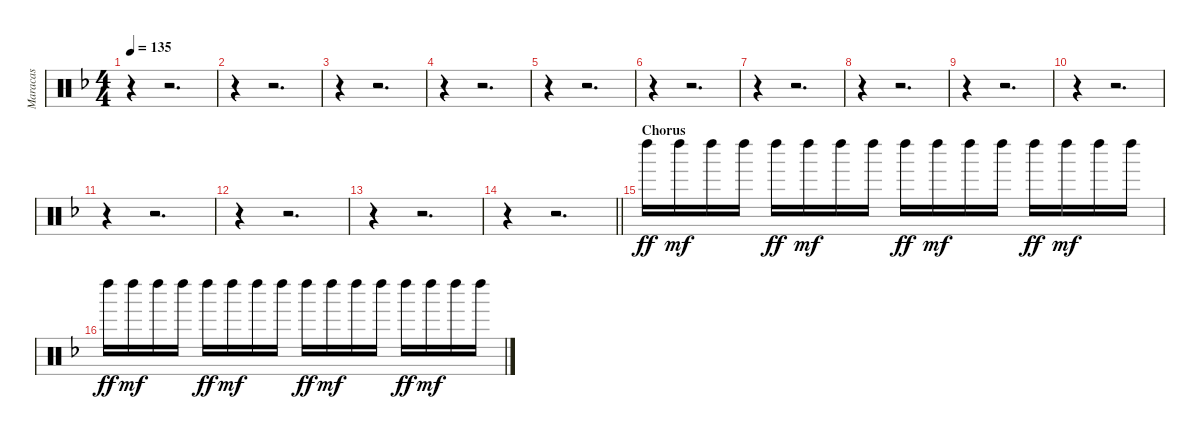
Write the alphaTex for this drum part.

\track ("Maracas" "Maracas") {instrument percussion}
\staff {score}
\articulation defaults
\ts (4 4)
\tempo 135
\clef neutral
\ks f
r.4{dy mf} r.2{d} |
r.4 r.2{d} |
r.4 r.2{d} |
r.4 r.2{d} |
r.4 r.2{d} |
r.4 r.2{d} |
r.4 r.2{d} |
r.4 r.2{d} |
r.4 r.2{d} |
r.4 r.2{d} |
r.4 r.2{d} |
r.4 r.2{d} |
r.4 r.2{d} |
\barLineRight lightlight
r.4 r.2{d} |
\section ("" "Chorus")
"Left Maraca (hit)".16{dy ff} "Left Maraca (hit)".16{dy mf} "Left Maraca (hit)".16 "Left Maraca (hit)".16 "Left Maraca (hit)".16{dy ff} "Left Maraca (hit)".16{dy mf} "Left Maraca (hit)".16 "Left Maraca (hit)".16 "Left Maraca (hit)".16{dy ff} "Left Maraca (hit)".16{dy mf} "Left Maraca (hit)".16 "Left Maraca (hit)".16 "Left Maraca (hit)".16{dy ff} "Left Maraca (hit)".16{dy mf} "Left Maraca (hit)".16 "Left Maraca (hit)".16 |
"Left Maraca (hit)".16{dy ff} "Left Maraca (hit)".16{dy mf} "Left Maraca (hit)".16 "Left Maraca (hit)".16 "Left Maraca (hit)".16{dy ff} "Left Maraca (hit)".16{dy mf} "Left Maraca (hit)".16 "Left Maraca (hit)".16 "Left Maraca (hit)".16{dy ff} "Left Maraca (hit)".16{dy mf} "Left Maraca (hit)".16 "Left Maraca (hit)".16 "Left Maraca (hit)".16{dy ff} "Left Maraca (hit)".16{dy mf} "Left Maraca (hit)".16 "Left Maraca (hit)".16
